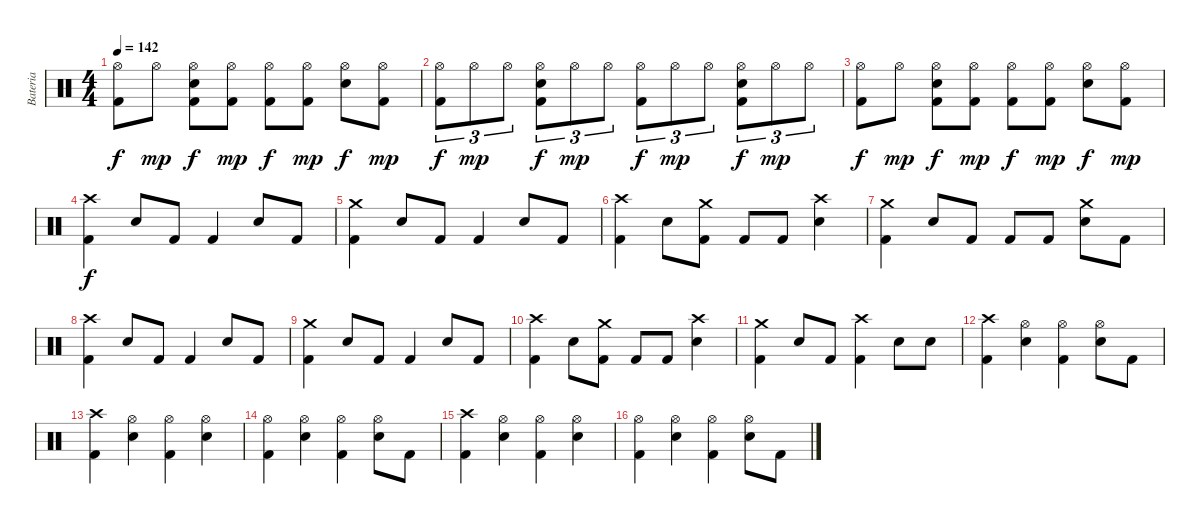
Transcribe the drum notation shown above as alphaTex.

\track ("Bateria" "Bateria") {instrument percussion}
\staff {score}
\articulation defaults
\ts (4 4)
\tempo 142
\clef neutral
\ks c
("Kick (hit) 2" "Hi-Hat (open)").8{dy f} "Hi-Hat (open)".8{dy mp} ("Electric Snare (hit)" "Kick (hit) 2" "Hi-Hat (open)").8{dy f} ("Kick (hit) 2" "Hi-Hat (open)").8{dy mp} ("Kick (hit) 2"{x} "Hi-Hat (open)").8{dy f} ("Kick (hit) 2" "Hi-Hat (open)").8{dy mp} ("Electric Snare (hit)" "Hi-Hat (open)").8{dy f} ("Kick (hit) 2" "Hi-Hat (open)").8{dy mp} |
("Kick (hit) 2" "Hi-Hat (open)").8{tu (3 2) dy f} "Hi-Hat (open)".8{tu (3 2) dy mp} "Hi-Hat (open)".8{tu (3 2)} ("Electric Snare (hit)" "Kick (hit) 2" "Hi-Hat (open)").8{tu (3 2) dy f} "Hi-Hat (open)".8{tu (3 2) dy mp} "Hi-Hat (open)".8{tu (3 2)} ("Kick (hit) 2" "Hi-Hat (open)").8{tu (3 2) dy f} "Hi-Hat (open)".8{tu (3 2) dy mp} "Hi-Hat (open)".8{tu (3 2)} ("Electric Snare (hit)" "Kick (hit) 2" "Hi-Hat (open)").8{tu (3 2) dy f} "Hi-Hat (open)".8{tu (3 2) dy mp} "Hi-Hat (open)".8{tu (3 2)} |
("Kick (hit) 2" "Hi-Hat (open)").8{dy f} "Hi-Hat (open)".8{dy mp} ("Electric Snare (hit)" "Kick (hit) 2" "Hi-Hat (open)").8{dy f} ("Kick (hit) 2" "Hi-Hat (open)").8{dy mp} ("Kick (hit) 2"{x} "Hi-Hat (open)").8{dy f} ("Kick (hit) 2" "Hi-Hat (open)").8{dy mp} ("Electric Snare (hit)" "Hi-Hat (open)").8{dy f} ("Kick (hit) 2" "Hi-Hat (open)").8{dy mp} |
("Kick (hit) 2" "Crash high (hit)").4{dy f} "Electric Snare (hit)".8 "Kick (hit) 2".8 "Kick (hit) 2".4 "Electric Snare (hit)".8 "Kick (hit) 2".8 |
("Kick (hit) 2" "Crash medium (hit)").4 "Electric Snare (hit)".8 "Kick (hit) 2".8 "Kick (hit) 2".4 "Electric Snare (hit)".8 "Kick (hit) 2".8 |
("Kick (hit) 2" "Crash high (hit)").4 "Electric Snare (hit)".8 ("Kick (hit) 2" "Crash medium (hit)").8 "Kick (hit) 2".8 "Kick (hit) 2".8 ("Electric Snare (hit)" "Crash high (hit)").4 |
("Kick (hit) 2" "Crash medium (hit)").4 "Electric Snare (hit)".8 "Kick (hit) 2".8 "Kick (hit) 2".8 "Kick (hit) 2".8 ("Electric Snare (hit)" "Crash medium (hit)").8 "Kick (hit) 2".8 |
("Kick (hit) 2" "Crash high (hit)").4 "Electric Snare (hit)".8 "Kick (hit) 2".8 "Kick (hit) 2".4 "Electric Snare (hit)".8 "Kick (hit) 2".8 |
("Kick (hit) 2" "Crash medium (hit)").4 "Electric Snare (hit)".8 "Kick (hit) 2".8 "Kick (hit) 2".4 "Electric Snare (hit)".8 "Kick (hit) 2".8 |
("Kick (hit) 2" "Crash high (hit)").4 "Electric Snare (hit)".8 ("Kick (hit) 2" "Crash medium (hit)").8 "Kick (hit) 2".8 "Kick (hit) 2".8 ("Electric Snare (hit)" "Crash high (hit)").4 |
("Kick (hit) 2" "Crash medium (hit)").4 "Electric Snare (hit)".8 "Kick (hit) 2".8 ("Kick (hit) 2" "Crash high (hit)").4 "Electric Snare (hit)".8 "Electric Snare (hit)".8 |
("Crash high (hit)" "Kick (hit) 2").4 ("Electric Snare (hit)" "Hi-Hat (open)").4 ("Kick (hit) 2" "Hi-Hat (open)").4 ("Electric Snare (hit)" "Hi-Hat (open)").8 "Kick (hit) 2".8 |
("Crash high (hit)" "Kick (hit) 2").4 ("Electric Snare (hit)" "Hi-Hat (open)").4 ("Kick (hit) 2" "Hi-Hat (open)").4 ("Electric Snare (hit)" "Hi-Hat (open)").4 |
("Kick (hit) 2" "Hi-Hat (open)").4 ("Electric Snare (hit)" "Hi-Hat (open)").4 ("Kick (hit) 2" "Hi-Hat (open)").4 ("Electric Snare (hit)" "Hi-Hat (open)").8 "Kick (hit) 2".8 |
("Crash high (hit)" "Kick (hit) 2").4 ("Electric Snare (hit)" "Hi-Hat (open)").4 ("Kick (hit) 2" "Hi-Hat (open)").4 ("Electric Snare (hit)" "Hi-Hat (open)").4 |
("Kick (hit) 2" "Hi-Hat (open)").4 ("Electric Snare (hit)" "Hi-Hat (open)").4 ("Kick (hit) 2" "Hi-Hat (open)").4 ("Electric Snare (hit)" "Hi-Hat (open)").8 "Kick (hit) 2".8
